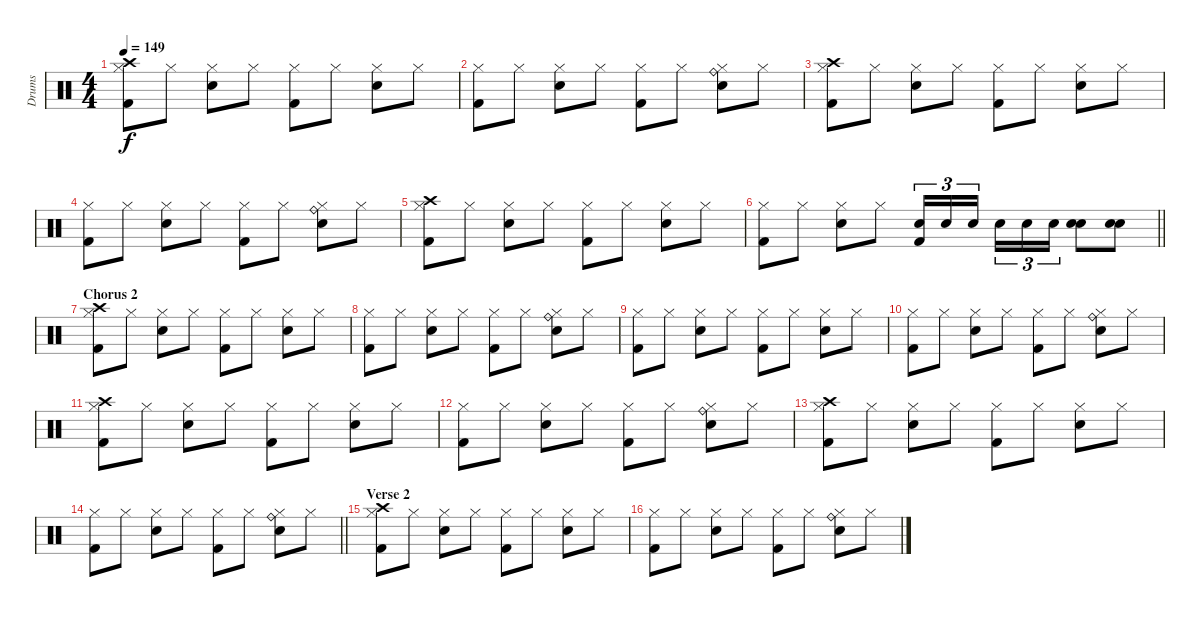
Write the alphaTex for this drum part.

\track ("Drums" "Drums") {instrument percussion}
\staff {score}
\articulation defaults
\ts (4 4)
\tempo 149
\clef neutral
\ks c
("Hi-Hat (closed)" "Crash high (hit)" "Kick (hit) 2").8{dy f} "Hi-Hat (closed)".8 ("Hi-Hat (closed)" "Electric Snare (hit)").8 "Hi-Hat (closed)".8 ("Hi-Hat (closed)" "Kick (hit) 2").8 "Hi-Hat (closed)".8 ("Hi-Hat (closed)" "Electric Snare (hit)").8 "Hi-Hat (closed)".8 |
("Hi-Hat (closed)" "Kick (hit) 2").8 "Hi-Hat (closed)".8 ("Hi-Hat (closed)" "Electric Snare (hit)").8 "Hi-Hat (closed)".8 ("Hi-Hat (closed)" "Kick (hit) 2").8 "Hi-Hat (closed)".8 ("Ride (bell)" "Hi-Hat (closed)" "Electric Snare (hit)").8 "Hi-Hat (closed)".8 |
("Hi-Hat (closed)" "Crash high (hit)" "Kick (hit) 2").8 "Hi-Hat (closed)".8 ("Hi-Hat (closed)" "Electric Snare (hit)").8 "Hi-Hat (closed)".8 ("Hi-Hat (closed)" "Kick (hit) 2").8 "Hi-Hat (closed)".8 ("Hi-Hat (closed)" "Electric Snare (hit)").8 "Hi-Hat (closed)".8 |
("Hi-Hat (closed)" "Kick (hit) 2").8 "Hi-Hat (closed)".8 ("Hi-Hat (closed)" "Electric Snare (hit)").8 "Hi-Hat (closed)".8 ("Hi-Hat (closed)" "Kick (hit) 2").8 "Hi-Hat (closed)".8 ("Ride (bell)" "Hi-Hat (closed)" "Electric Snare (hit)").8 "Hi-Hat (closed)".8 |
("Hi-Hat (closed)" "Crash high (hit)" "Kick (hit) 2").8 "Hi-Hat (closed)".8 ("Hi-Hat (closed)" "Electric Snare (hit)").8 "Hi-Hat (closed)".8 ("Hi-Hat (closed)" "Kick (hit) 2").8 "Hi-Hat (closed)".8 ("Hi-Hat (closed)" "Electric Snare (hit)").8 "Hi-Hat (closed)".8 |
\barLineRight lightlight
("Hi-Hat (closed)" "Kick (hit) 2").8 "Hi-Hat (closed)".8 ("Hi-Hat (closed)" "Electric Snare (hit)").8 "Hi-Hat (closed)".8 ("Electric Snare (hit)" "Kick (hit) 2").16{tu (3 2)} "Electric Snare (hit)".16{tu (3 2)} "Electric Snare (hit)".16{tu (3 2) beam splitsecondary} "Electric Snare (hit)".16{tu (3 2)} "Electric Snare (hit)".16{tu (3 2)} "Electric Snare (hit)".16{tu (3 2)} ("Electric Snare (hit)" "Electric Snare (hit)").8 ("Electric Snare (hit)" "Electric Snare (hit)").8 |
\section ("" "Chorus 2")
("Hi-Hat (closed)" "Crash high (hit)" "Kick (hit) 2").8 "Hi-Hat (closed)".8 ("Hi-Hat (closed)" "Electric Snare (hit)").8 "Hi-Hat (closed)".8 ("Hi-Hat (closed)" "Kick (hit) 2").8 "Hi-Hat (closed)".8 ("Hi-Hat (closed)" "Electric Snare (hit)").8 "Hi-Hat (closed)".8 |
("Hi-Hat (closed)" "Kick (hit) 2").8 "Hi-Hat (closed)".8 ("Hi-Hat (closed)" "Electric Snare (hit)").8 "Hi-Hat (closed)".8 ("Hi-Hat (closed)" "Kick (hit) 2").8 "Hi-Hat (closed)".8 ("Ride (bell)" "Hi-Hat (closed)" "Electric Snare (hit)").8 "Hi-Hat (closed)".8 |
("Hi-Hat (closed)" "Kick (hit) 2").8 "Hi-Hat (closed)".8 ("Hi-Hat (closed)" "Electric Snare (hit)").8 "Hi-Hat (closed)".8 ("Hi-Hat (closed)" "Kick (hit) 2").8 "Hi-Hat (closed)".8 ("Hi-Hat (closed)" "Electric Snare (hit)").8 "Hi-Hat (closed)".8 |
("Hi-Hat (closed)" "Kick (hit) 2").8 "Hi-Hat (closed)".8 ("Hi-Hat (closed)" "Electric Snare (hit)").8 "Hi-Hat (closed)".8 ("Hi-Hat (closed)" "Kick (hit) 2").8 "Hi-Hat (closed)".8 ("Ride (bell)" "Hi-Hat (closed)" "Electric Snare (hit)").8 "Hi-Hat (closed)".8 |
("Hi-Hat (closed)" "Crash high (hit)" "Kick (hit) 2").8 "Hi-Hat (closed)".8 ("Hi-Hat (closed)" "Electric Snare (hit)").8 "Hi-Hat (closed)".8 ("Hi-Hat (closed)" "Kick (hit) 2").8 "Hi-Hat (closed)".8 ("Hi-Hat (closed)" "Electric Snare (hit)").8 "Hi-Hat (closed)".8 |
("Hi-Hat (closed)" "Kick (hit) 2").8 "Hi-Hat (closed)".8 ("Hi-Hat (closed)" "Electric Snare (hit)").8 "Hi-Hat (closed)".8 ("Hi-Hat (closed)" "Kick (hit) 2").8 "Hi-Hat (closed)".8 ("Ride (bell)" "Hi-Hat (closed)" "Electric Snare (hit)").8 "Hi-Hat (closed)".8 |
("Hi-Hat (closed)" "Crash high (hit)" "Kick (hit) 2").8 "Hi-Hat (closed)".8 ("Hi-Hat (closed)" "Electric Snare (hit)").8 "Hi-Hat (closed)".8 ("Hi-Hat (closed)" "Kick (hit) 2").8 "Hi-Hat (closed)".8 ("Hi-Hat (closed)" "Electric Snare (hit)").8 "Hi-Hat (closed)".8 |
\barLineRight lightlight
("Hi-Hat (closed)" "Kick (hit) 2").8 "Hi-Hat (closed)".8 ("Hi-Hat (closed)" "Electric Snare (hit)").8 "Hi-Hat (closed)".8 ("Hi-Hat (closed)" "Kick (hit) 2").8 "Hi-Hat (closed)".8 ("Ride (bell)" "Hi-Hat (closed)" "Electric Snare (hit)").8 "Hi-Hat (closed)".8 |
\section ("" "Verse 2")
("Hi-Hat (closed)" "Crash high (hit)" "Kick (hit) 2").8 "Hi-Hat (closed)".8 ("Hi-Hat (closed)" "Electric Snare (hit)").8 "Hi-Hat (closed)".8 ("Hi-Hat (closed)" "Kick (hit) 2").8 "Hi-Hat (closed)".8 ("Hi-Hat (closed)" "Electric Snare (hit)").8 "Hi-Hat (closed)".8 |
("Hi-Hat (closed)" "Kick (hit) 2").8 "Hi-Hat (closed)".8 ("Hi-Hat (closed)" "Electric Snare (hit)").8 "Hi-Hat (closed)".8 ("Hi-Hat (closed)" "Kick (hit) 2").8 "Hi-Hat (closed)".8 ("Ride (bell)" "Hi-Hat (closed)" "Electric Snare (hit)").8 "Hi-Hat (closed)".8
